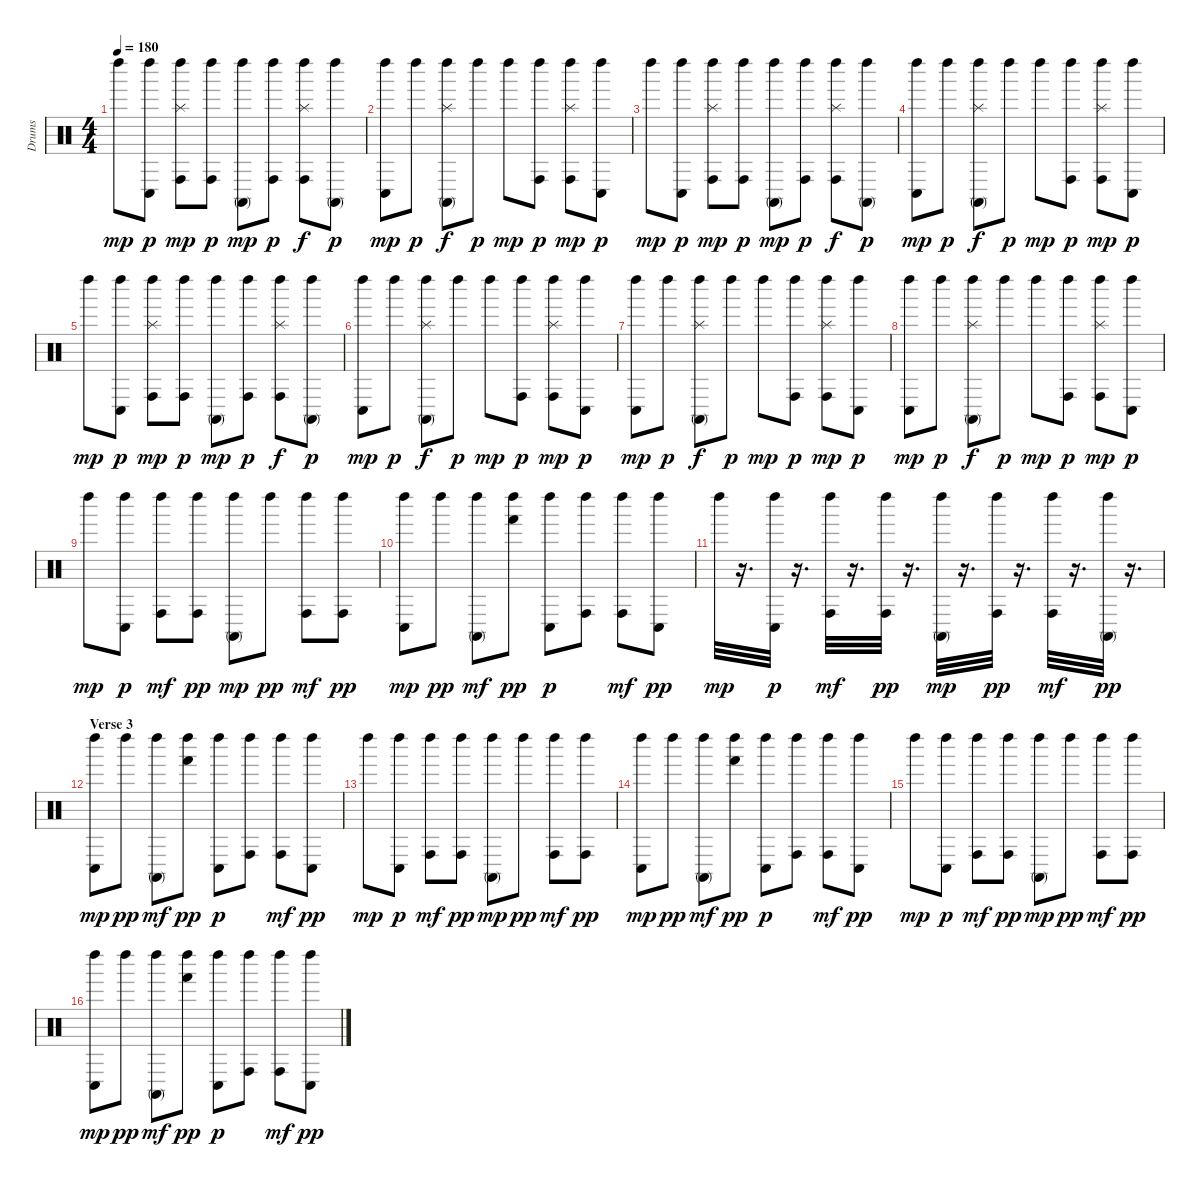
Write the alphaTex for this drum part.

\track ("Drums" "Drums") {instrument percussion}
\staff {score}
\articulation defaults
\ts (4 4)
\tempo 180
\clef neutral
\ks c "Left Maraca (hit)".8{dy mp}
("Left Maraca (hit)" "Conga low (hit)").8{dy p} ("Left Maraca (hit)" "Conga high (hit)" "Splash (hit)").8{dy mp} ("Left Maraca (hit)" "Conga high (hit)").8{dy p} ("Left Maraca (hit)" "Conga high (mute)").8{dy mp} ("Left Maraca (hit)" "Conga high (hit)").8{dy p} ("Left Maraca (hit)" "Conga high (hit)" "Splash (hit)").8{dy f} ("Left Maraca (hit)" "Conga high (mute)").8{dy p} |
("Left Maraca (hit)" "Conga low (hit)").8{dy mp} "Left Maraca (hit)".8{dy p} ("Left Maraca (hit)" "Conga high (mute)" "Splash (hit)").8{dy f} "Left Maraca (hit)".8{dy p} "Left Maraca (hit)".8{dy mp} ("Left Maraca (hit)" "Conga high (hit)").8{dy p} ("Left Maraca (hit)" "Conga high (hit)" "Splash (hit)").8{dy mp} ("Left Maraca (hit)" "Conga low (hit)").8{dy p} |
"Left Maraca (hit)".8{dy mp} ("Left Maraca (hit)" "Conga low (hit)").8{dy p} ("Left Maraca (hit)" "Conga high (hit)" "Splash (hit)").8{dy mp} ("Left Maraca (hit)" "Conga high (hit)").8{dy p} ("Left Maraca (hit)" "Conga high (mute)").8{dy mp} ("Left Maraca (hit)" "Conga high (hit)").8{dy p} ("Left Maraca (hit)" "Conga high (hit)" "Splash (hit)").8{dy f} ("Left Maraca (hit)" "Conga high (mute)").8{dy p} |
("Left Maraca (hit)" "Conga low (hit)").8{dy mp} "Left Maraca (hit)".8{dy p} ("Left Maraca (hit)" "Conga high (mute)" "Splash (hit)").8{dy f} "Left Maraca (hit)".8{dy p} "Left Maraca (hit)".8{dy mp} ("Left Maraca (hit)" "Conga high (hit)").8{dy p} ("Left Maraca (hit)" "Conga high (hit)" "Splash (hit)").8{dy mp} ("Left Maraca (hit)" "Conga low (hit)").8{dy p} |
"Left Maraca (hit)".8{dy mp} ("Left Maraca (hit)" "Conga low (hit)").8{dy p} ("Left Maraca (hit)" "Conga high (hit)" "Splash (hit)").8{dy mp} ("Left Maraca (hit)" "Conga high (hit)").8{dy p} ("Left Maraca (hit)" "Conga high (mute)").8{dy mp} ("Left Maraca (hit)" "Conga high (hit)").8{dy p} ("Left Maraca (hit)" "Conga high (hit)" "Splash (hit)").8{dy f} ("Left Maraca (hit)" "Conga high (mute)").8{dy p} |
("Left Maraca (hit)" "Conga low (hit)").8{dy mp} "Left Maraca (hit)".8{dy p} ("Left Maraca (hit)" "Conga high (mute)" "Splash (hit)").8{dy f} "Left Maraca (hit)".8{dy p} "Left Maraca (hit)".8{dy mp} ("Left Maraca (hit)" "Conga high (hit)").8{dy p} ("Left Maraca (hit)" "Conga high (hit)" "Splash (hit)").8{dy mp} ("Left Maraca (hit)" "Conga low (hit)").8{dy p} |
("Left Maraca (hit)" "Conga low (hit)").8{dy mp} "Left Maraca (hit)".8{dy p} ("Left Maraca (hit)" "Conga high (mute)" "Splash (hit)").8{dy f} "Left Maraca (hit)".8{dy p} "Left Maraca (hit)".8{dy mp} ("Left Maraca (hit)" "Conga high (hit)").8{dy p} ("Left Maraca (hit)" "Conga high (hit)" "Splash (hit)").8{dy mp} ("Left Maraca (hit)" "Conga low (hit)").8{dy p} |
("Left Maraca (hit)" "Conga low (hit)").8{dy mp} "Left Maraca (hit)".8{dy p} ("Left Maraca (hit)" "Conga high (mute)" "Splash (hit)").8{dy f} "Left Maraca (hit)".8{dy p} "Left Maraca (hit)".8{dy mp} ("Left Maraca (hit)" "Conga high (hit)").8{dy p} ("Left Maraca (hit)" "Conga high (hit)" "Splash (hit)").8{dy mp} ("Left Maraca (hit)" "Conga low (hit)").8{dy p} |
"Left Maraca (hit)".8{dy mp} ("Left Maraca (hit)" "Conga low (hit)").8{dy p} ("Left Maraca (hit)" "Conga high (hit)").8{dy mf} ("Left Maraca (hit)" "Conga high (hit)").8{dy pp} ("Left Maraca (hit)" "Conga high (mute)").8{dy mp} "Left Maraca (hit)".8{dy pp} ("Left Maraca (hit)" "Conga high (hit)").8{dy mf} ("Left Maraca (hit)" "Conga high (hit)").8{dy pp} |
("Left Maraca (hit)" "Conga low (hit)").8{dy mp} "Left Maraca (hit)".8{dy pp} ("Left Maraca (hit)" "Conga high (mute)").8{dy mf} ("Left Maraca (hit)" "Hand (hit)").8{dy pp} ("Left Maraca (hit)" "Conga low (hit)").8{dy p} ("Left Maraca (hit)" "Conga high (hit)").8 ("Left Maraca (hit)" "Conga high (hit)").8{dy mf} ("Left Maraca (hit)" "Conga low (hit)").8{dy pp} |
"Left Maraca (hit)".32{dy mp} r.16{d} ("Conga low (hit)" "Left Maraca (hit)").32{dy p} r.16{d} ("Conga high (hit)" "Left Maraca (hit)").32{dy mf} r.16{d} ("Conga high (hit)" "Left Maraca (hit)").32{dy pp} r.16{d} ("Conga high (mute)" "Left Maraca (hit)").32{dy mp} r.16{d} ("Conga high (hit)" "Left Maraca (hit)").32{dy pp} r.16{d} ("Conga high (hit)" "Left Maraca (hit)").32{dy mf} r.16{d} ("Conga high (mute)" "Left Maraca (hit)").32{dy pp} r.16{d} |
\section ("" "Verse 3")
("Left Maraca (hit)" "Conga low (hit)").8{dy mp} "Left Maraca (hit)".8{dy pp} ("Left Maraca (hit)" "Conga high (mute)").8{dy mf} ("Left Maraca (hit)" "Hand (hit)").8{dy pp} ("Left Maraca (hit)" "Conga low (hit)").8{dy p} ("Left Maraca (hit)" "Conga high (hit)").8 ("Left Maraca (hit)" "Conga high (hit)").8{dy mf} ("Left Maraca (hit)" "Conga low (hit)").8{dy pp} |
"Left Maraca (hit)".8{dy mp} ("Left Maraca (hit)" "Conga low (hit)").8{dy p} ("Left Maraca (hit)" "Conga high (hit)").8{dy mf} ("Left Maraca (hit)" "Conga high (hit)").8{dy pp} ("Left Maraca (hit)" "Conga high (mute)").8{dy mp} "Left Maraca (hit)".8{dy pp} ("Left Maraca (hit)" "Conga high (hit)").8{dy mf} ("Left Maraca (hit)" "Conga high (hit)").8{dy pp} |
("Left Maraca (hit)" "Conga low (hit)").8{dy mp} "Left Maraca (hit)".8{dy pp} ("Left Maraca (hit)" "Conga high (mute)").8{dy mf} ("Left Maraca (hit)" "Hand (hit)").8{dy pp} ("Left Maraca (hit)" "Conga low (hit)").8{dy p} ("Left Maraca (hit)" "Conga high (hit)").8 ("Left Maraca (hit)" "Conga high (hit)").8{dy mf} ("Left Maraca (hit)" "Conga low (hit)").8{dy pp} |
"Left Maraca (hit)".8{dy mp} ("Left Maraca (hit)" "Conga low (hit)").8{dy p} ("Left Maraca (hit)" "Conga high (hit)").8{dy mf} ("Left Maraca (hit)" "Conga high (hit)").8{dy pp} ("Left Maraca (hit)" "Conga high (mute)").8{dy mp} "Left Maraca (hit)".8{dy pp} ("Left Maraca (hit)" "Conga high (hit)").8{dy mf} ("Left Maraca (hit)" "Conga high (hit)").8{dy pp} |
("Left Maraca (hit)" "Conga low (hit)").8{dy mp} "Left Maraca (hit)".8{dy pp} ("Left Maraca (hit)" "Conga high (mute)").8{dy mf} ("Left Maraca (hit)" "Hand (hit)").8{dy pp} ("Left Maraca (hit)" "Conga low (hit)").8{dy p} ("Left Maraca (hit)" "Conga high (hit)").8 ("Left Maraca (hit)" "Conga high (hit)").8{dy mf} ("Left Maraca (hit)" "Conga low (hit)").8{dy pp}
